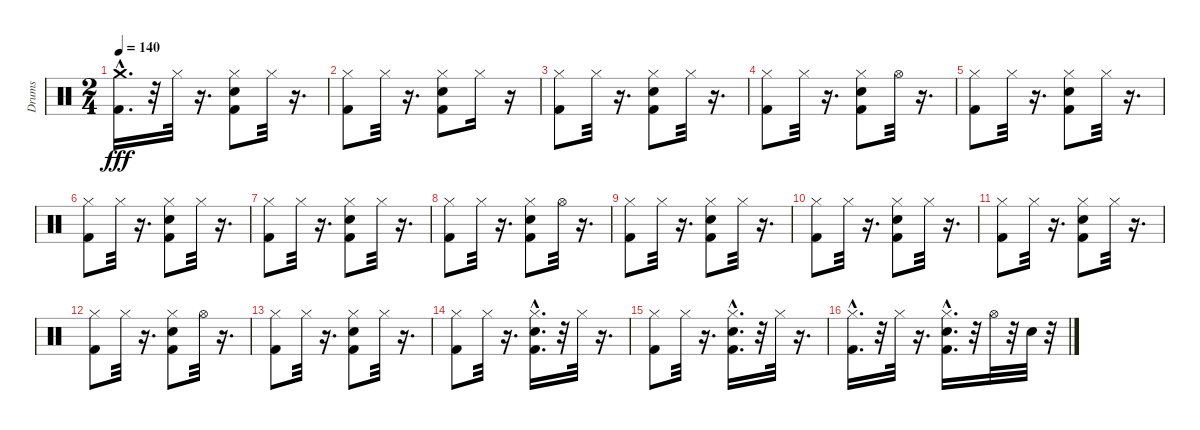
\track ("Drums" "Drums") {instrument percussion}
\staff {score}
\articulation defaults
\ts (2 4)
\tempo 140
\clef neutral
\ks c
("Kick (hit) 2"{hac} "Crash medium (hit)").16{d dy fff} r.32 "Hi-Hat (closed)".32 r.16{d} ("Kick (hit) 2" "Snare (hit) 2" "Hi-Hat (closed)").8 "Hi-Hat (closed)".32 r.16{d} |
("Kick (hit) 2" "Hi-Hat (closed)").8 "Hi-Hat (closed)".32 r.16{d} ("Snare (hit) 2" "Kick (hit) 2" "Hi-Hat (closed)").8 "Hi-Hat (closed)".16 r.16 |
("Kick (hit) 2" "Hi-Hat (closed)").8 "Hi-Hat (closed)".32 r.16{d} ("Hi-Hat (closed)" "Snare (hit) 2" "Kick (hit) 2").8 "Hi-Hat (closed)".32 r.16{d} |
("Kick (hit) 2" "Hi-Hat (closed)").8 "Hi-Hat (closed)".32 r.16{d} ("Kick (hit) 2" "Snare (hit) 2" "Hi-Hat (closed)").8 "Hi-Hat (open)".32 r.16{d} |
("Kick (hit) 2" "Hi-Hat (closed)").8 "Hi-Hat (closed)".32 r.16{d} ("Kick (hit) 2" "Hi-Hat (closed)" "Snare (hit) 2").8 "Hi-Hat (closed)".32 r.16{d} |
("Kick (hit) 2" "Hi-Hat (closed)").8 "Hi-Hat (closed)".32 r.16{d} ("Snare (hit) 2" "Kick (hit) 2" "Hi-Hat (closed)").8 "Hi-Hat (closed)".32 r.16{d} |
("Kick (hit) 2" "Hi-Hat (closed)").8 "Hi-Hat (closed)".32 r.16{d} ("Snare (hit) 2" "Kick (hit) 2" "Hi-Hat (closed)").8 "Hi-Hat (closed)".32 r.16{d} |
("Kick (hit) 2" "Hi-Hat (closed)").8 "Hi-Hat (closed)".32 r.16{d} ("Snare (hit) 2" "Kick (hit) 2" "Hi-Hat (closed)").8 "Hi-Hat (open)".32 r.16{d} |
("Kick (hit) 2" "Hi-Hat (closed)").8 "Hi-Hat (closed)".32 r.16{d} ("Snare (hit) 2" "Kick (hit) 2" "Hi-Hat (closed)").8 "Hi-Hat (closed)".32 r.16{d} |
("Kick (hit) 2" "Hi-Hat (closed)").8 "Hi-Hat (closed)".32 r.16{d} ("Hi-Hat (closed)" "Snare (hit) 2" "Kick (hit) 2").8 "Hi-Hat (closed)".32 r.16{d} |
("Kick (hit) 2" "Hi-Hat (closed)").8 "Hi-Hat (closed)".32 r.16{d} ("Hi-Hat (closed)" "Snare (hit) 2" "Kick (hit) 2").8 "Hi-Hat (closed)".32 r.16{d} |
("Kick (hit) 2" "Hi-Hat (closed)").8 "Hi-Hat (closed)".32 r.16{d} ("Snare (hit) 2" "Kick (hit) 2" "Hi-Hat (closed)").8 "Hi-Hat (open)".32 r.16{d} |
("Kick (hit) 2" "Hi-Hat (closed)").8 "Hi-Hat (closed)".32 r.16{d} ("Snare (hit) 2" "Kick (hit) 2" "Hi-Hat (closed)").8 "Hi-Hat (closed)".32 r.16{d} |
("Kick (hit) 2" "Hi-Hat (closed)").8 "Hi-Hat (closed)".32 r.16{d} ("Snare (hit) 2"{hac} "Kick (hit) 2"{hac} "Hi-Hat (closed)").16{d} r.32 "Hi-Hat (closed)".32 r.16{d} |
("Kick (hit) 2" "Hi-Hat (closed)").8 "Hi-Hat (closed)".32 r.16{d} ("Hi-Hat (closed)" "Snare (hit) 2"{hac} "Kick (hit) 2"{hac}).16{d} r.32 "Hi-Hat (closed)".32 r.16{d} |
("Kick (hit) 2"{hac} "Hi-Hat (closed)").16{d} r.32 "Hi-Hat (closed)".32 r.16{d} ("Snare (hit) 2"{hac} "Kick (hit) 2"{hac} "Hi-Hat (closed)").16{d} r.32 "Hi-Hat (open)".32 r.32 "Snare (hit) 2".32 r.32
